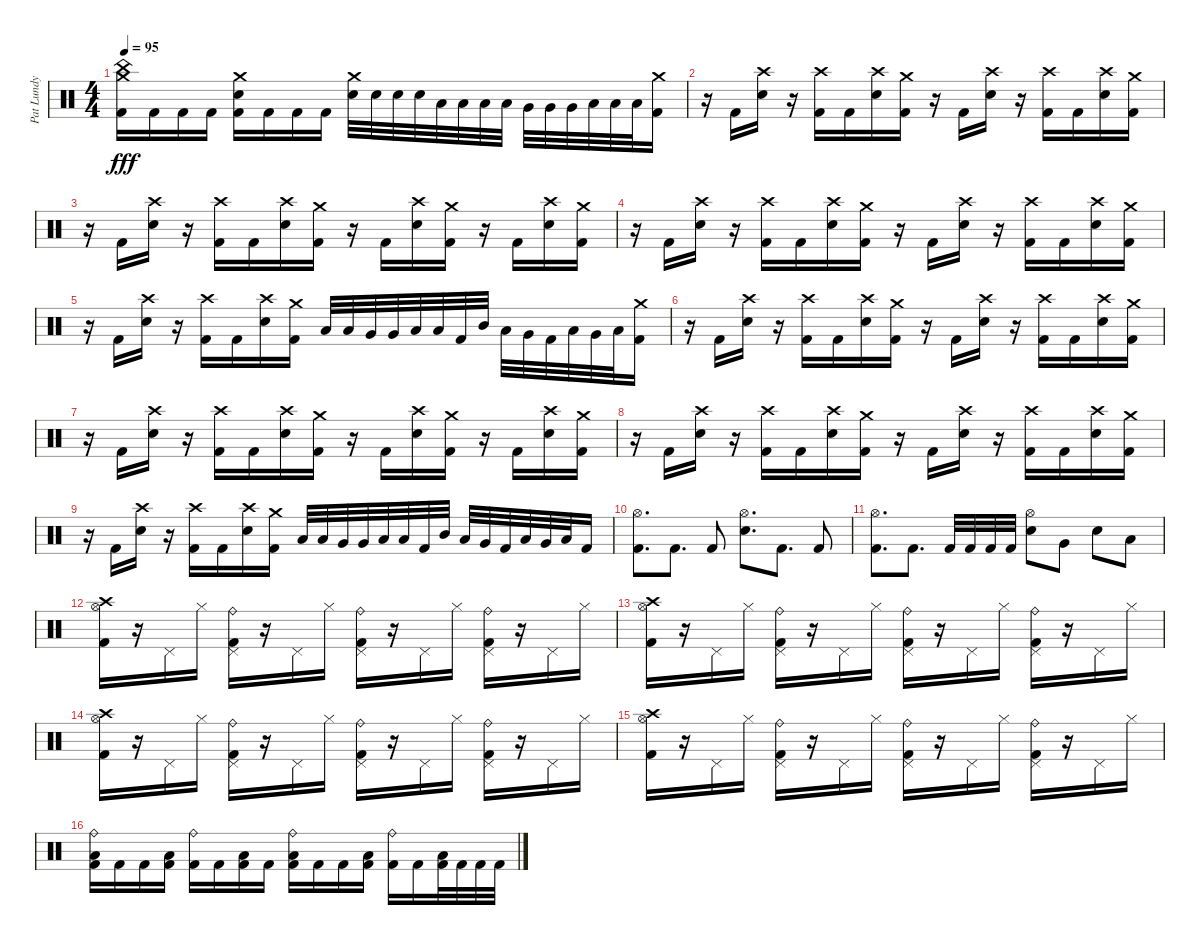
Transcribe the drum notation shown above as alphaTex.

\track ("Pat Lundy" "Pat Lundy") {instrument percussion}
\staff {score}
\articulation defaults
\ts (4 4)
\tempo 95
\clef neutral
\ks c
("Crash medium (hit)" "China (hit)" "Kick (hit) 2").16{dy fff} "Kick (hit) 2".16 "Kick (hit) 2".16 "Kick (hit) 2".16 ("Crash medium (hit)" "Electric Snare (hit)" "Kick (hit) 2").16 "Kick (hit) 2".16 "Kick (hit) 2".16 "Kick (hit) 2".16 ("Crash medium (hit)" "Electric Snare (hit)").32 "Electric Snare (hit)".32 "Electric Snare (hit)".32 "Electric Snare (hit)".32 "Low Tom (hit)".32 "Low Tom (hit)".32 "Low Tom (hit)".32 "Low Tom (hit)".32 "Very Low Tom (hit)".32 "Very Low Tom (hit)".32 "Very Low Tom (hit)".32 "Low Floor Tom (hit)".32 "Low Floor Tom (hit)".32 "Low Floor Tom (hit)".32 ("Crash medium (hit)" "Kick (hit) 2").16 |
r.16 "Kick (hit) 2".16 ("Crash high (hit)" "Electric Snare (hit)").16 r.16 ("Crash high (hit)" "Kick (hit) 2").16 "Kick (hit) 2".16 ("Crash high (hit)" "Electric Snare (hit)").16 ("Crash medium (hit)" "Kick (hit) 2").16 r.16 "Kick (hit) 2".16 ("Crash high (hit)" "Electric Snare (hit)").16 r.16 ("Crash high (hit)" "Kick (hit) 2").16 "Kick (hit) 2".16 ("Crash high (hit)" "Electric Snare (hit)").16 ("Crash medium (hit)" "Kick (hit) 2").16 |
r.16 "Kick (hit) 2".16 ("Crash high (hit)" "Electric Snare (hit)").16 r.16 ("Crash high (hit)" "Kick (hit) 2").16 "Kick (hit) 2".16 ("Crash high (hit)" "Electric Snare (hit)").16 ("Crash medium (hit)" "Kick (hit) 2").16 r.16 "Kick (hit) 2".16 ("Crash high (hit)" "Electric Snare (hit)").16 ("Crash medium (hit)" "Kick (hit) 2").16 r.16 "Kick (hit) 2".16 ("Crash high (hit)" "Electric Snare (hit)").16 ("Crash medium (hit)" "Kick (hit) 2").16 |
r.16 "Kick (hit) 2".16 ("Crash high (hit)" "Electric Snare (hit)").16 r.16 ("Crash high (hit)" "Kick (hit) 2").16 "Kick (hit) 2".16 ("Crash high (hit)" "Electric Snare (hit)").16 ("Crash medium (hit)" "Kick (hit) 2").16 r.16 "Kick (hit) 2".16 ("Crash high (hit)" "Electric Snare (hit)").16 r.16 ("Crash high (hit)" "Kick (hit) 2").16 "Kick (hit) 2".16 ("Crash high (hit)" "Electric Snare (hit)").16 ("Crash medium (hit)" "Kick (hit) 2").16 |
r.16 "Kick (hit) 2".16 ("Crash high (hit)" "Electric Snare (hit)").16 r.16 ("Crash high (hit)" "Kick (hit) 2").16 "Kick (hit) 2".16 ("Crash high (hit)" "Electric Snare (hit)").16 ("Crash medium (hit)" "Kick (hit) 2").16 "Low Tom (hit)".32 "Low Tom (hit)".32 "Very Low Tom (hit)".32 "Very Low Tom (hit)".32 "Low Floor Tom (hit)".32 "Low Floor Tom (hit)".32 "Kick (hit) 2".32 "Mid Tom (hit)".32 "Low Tom (hit)".32 "Very Low Tom (hit)".32 "Kick (hit) 2".32 "Low Tom (hit)".32 "Very Low Tom (hit)".32 "Low Floor Tom (hit)".32 ("Crash medium (hit)" "Kick (hit) 2").16 |
r.16 "Kick (hit) 2".16 ("Crash high (hit)" "Electric Snare (hit)").16 r.16 ("Crash high (hit)" "Kick (hit) 2").16 "Kick (hit) 2".16 ("Crash high (hit)" "Electric Snare (hit)").16 ("Crash medium (hit)" "Kick (hit) 2").16 r.16 "Kick (hit) 2".16 ("Crash high (hit)" "Electric Snare (hit)").16 r.16 ("Crash high (hit)" "Kick (hit) 2").16 "Kick (hit) 2".16 ("Crash high (hit)" "Electric Snare (hit)").16 ("Crash medium (hit)" "Kick (hit) 2").16 |
r.16 "Kick (hit) 2".16 ("Crash high (hit)" "Electric Snare (hit)").16 r.16 ("Crash high (hit)" "Kick (hit) 2").16 "Kick (hit) 2".16 ("Crash high (hit)" "Electric Snare (hit)").16 ("Crash medium (hit)" "Kick (hit) 2").16 r.16 "Kick (hit) 2".16 ("Crash high (hit)" "Electric Snare (hit)").16 ("Crash medium (hit)" "Kick (hit) 2").16 r.16 "Kick (hit) 2".16 ("Crash high (hit)" "Electric Snare (hit)").16 ("Crash medium (hit)" "Kick (hit) 2").16 |
r.16 "Kick (hit) 2".16 ("Crash high (hit)" "Electric Snare (hit)").16 r.16 ("Crash high (hit)" "Kick (hit) 2").16 "Kick (hit) 2".16 ("Crash high (hit)" "Electric Snare (hit)").16 ("Crash medium (hit)" "Kick (hit) 2").16 r.16 "Kick (hit) 2".16 ("Crash high (hit)" "Electric Snare (hit)").16 r.16 ("Crash high (hit)" "Kick (hit) 2").16 "Kick (hit) 2".16 ("Crash high (hit)" "Electric Snare (hit)").16 ("Crash medium (hit)" "Kick (hit) 2").16 |
r.16 "Kick (hit) 2".16 ("Crash high (hit)" "Electric Snare (hit)").16 r.16 ("Crash high (hit)" "Kick (hit) 2").16 "Kick (hit) 2".16 ("Crash high (hit)" "Electric Snare (hit)").16 ("Crash medium (hit)" "Kick (hit) 2").16 "Low Tom (hit)".32 "Low Tom (hit)".32 "Very Low Tom (hit)".32 "Very Low Tom (hit)".32 "Low Floor Tom (hit)".32 "Low Floor Tom (hit)".32 "Kick (hit) 2".32 "Mid Tom (hit)".32 "Low Tom (hit)".32 "Very Low Tom (hit)".32 "Kick (hit) 2".32 "Low Tom (hit)".32 "Very Low Tom (hit)".32 "Low Floor Tom (hit)".32 "Kick (hit) 2".16 |
("Hi-Hat (open)" "Kick (hit) 2").8{d} "Kick (hit) 2".8{d} "Kick (hit) 2".8 ("Hi-Hat (open)" "Electric Snare (hit)").8{d} "Kick (hit) 2".8{d} "Kick (hit) 2".8 |
("Hi-Hat (open)" "Kick (hit) 2").8{d} "Kick (hit) 2".8{d} "Kick (hit) 2".32 "Kick (hit) 2".32 "Kick (hit) 2".32 "Kick (hit) 2".32 ("Hi-Hat (open)" "Electric Snare (hit)").8 "Very Low Tom (hit)".8 "Electric Snare (hit)".8 "Low Floor Tom (hit)".8 |
("Crash high (hit)" "Hi-Hat (open)" "Kick (hit) 2").16 r.16 "Pedal Hi-Hat (hit)".16 "Hi-Hat (closed)".16 ("Ride (bell)" "Pedal Hi-Hat (hit)" "Kick (hit) 2").16 r.16 "Pedal Hi-Hat (hit)".16 "Hi-Hat (closed)".16 ("Ride (bell)" "Pedal Hi-Hat (hit)" "Kick (hit) 2").16 r.16 "Pedal Hi-Hat (hit)".16 "Hi-Hat (closed)".16 ("Ride (bell)" "Pedal Hi-Hat (hit)" "Kick (hit) 2").16 r.16 "Pedal Hi-Hat (hit)".16 "Hi-Hat (closed)".16 |
("Crash high (hit)" "Hi-Hat (open)" "Kick (hit) 2").16 r.16 "Pedal Hi-Hat (hit)".16 "Hi-Hat (closed)".16 ("Ride (bell)" "Pedal Hi-Hat (hit)" "Kick (hit) 2").16 r.16 "Pedal Hi-Hat (hit)".16 "Hi-Hat (closed)".16 ("Ride (bell)" "Pedal Hi-Hat (hit)" "Kick (hit) 2").16 r.16 "Pedal Hi-Hat (hit)".16 "Hi-Hat (closed)".16 ("Ride (bell)" "Pedal Hi-Hat (hit)" "Kick (hit) 2").16 r.16 "Pedal Hi-Hat (hit)".16 "Hi-Hat (closed)".16 |
("Crash high (hit)" "Hi-Hat (open)" "Kick (hit) 2").16 r.16 "Pedal Hi-Hat (hit)".16 "Hi-Hat (closed)".16 ("Ride (bell)" "Pedal Hi-Hat (hit)" "Kick (hit) 2").16 r.16 "Pedal Hi-Hat (hit)".16 "Hi-Hat (closed)".16 ("Ride (bell)" "Pedal Hi-Hat (hit)" "Kick (hit) 2").16 r.16 "Pedal Hi-Hat (hit)".16 "Hi-Hat (closed)".16 ("Ride (bell)" "Pedal Hi-Hat (hit)" "Kick (hit) 2").16 r.16 "Pedal Hi-Hat (hit)".16 "Hi-Hat (closed)".16 |
("Crash high (hit)" "Hi-Hat (open)" "Kick (hit) 2").16 r.16 "Pedal Hi-Hat (hit)".16 "Hi-Hat (closed)".16 ("Ride (bell)" "Pedal Hi-Hat (hit)" "Kick (hit) 2").16 r.16 "Pedal Hi-Hat (hit)".16 "Hi-Hat (closed)".16 ("Ride (bell)" "Pedal Hi-Hat (hit)" "Kick (hit) 2").16 r.16 "Pedal Hi-Hat (hit)".16 "Hi-Hat (closed)".16 ("Ride (bell)" "Pedal Hi-Hat (hit)" "Kick (hit) 2").16 r.16 "Pedal Hi-Hat (hit)".16 "Hi-Hat (closed)".16 |
("Ride (bell)" "Low Floor Tom (hit)" "Kick (hit) 2").16 "Kick (hit) 2".16 "Kick (hit) 2".16 ("Low Floor Tom (hit)" "Kick (hit) 2").16 ("Ride (bell)" "Kick (hit) 2").16 "Kick (hit) 2".16 ("Low Floor Tom (hit)" "Kick (hit) 2").16 "Kick (hit) 2".16 ("Ride (bell)" "Low Floor Tom (hit)" "Kick (hit) 2").16 "Kick (hit) 2".16 "Kick (hit) 2".16 ("Low Floor Tom (hit)" "Kick (hit) 2").16 ("Ride (bell)" "Kick (hit) 2").16 "Kick (hit) 2".16 ("Low Floor Tom (hit)" "Kick (hit) 2").32 "Kick (hit) 2".32 "Kick (hit) 2".32 "Kick (hit) 2".32
